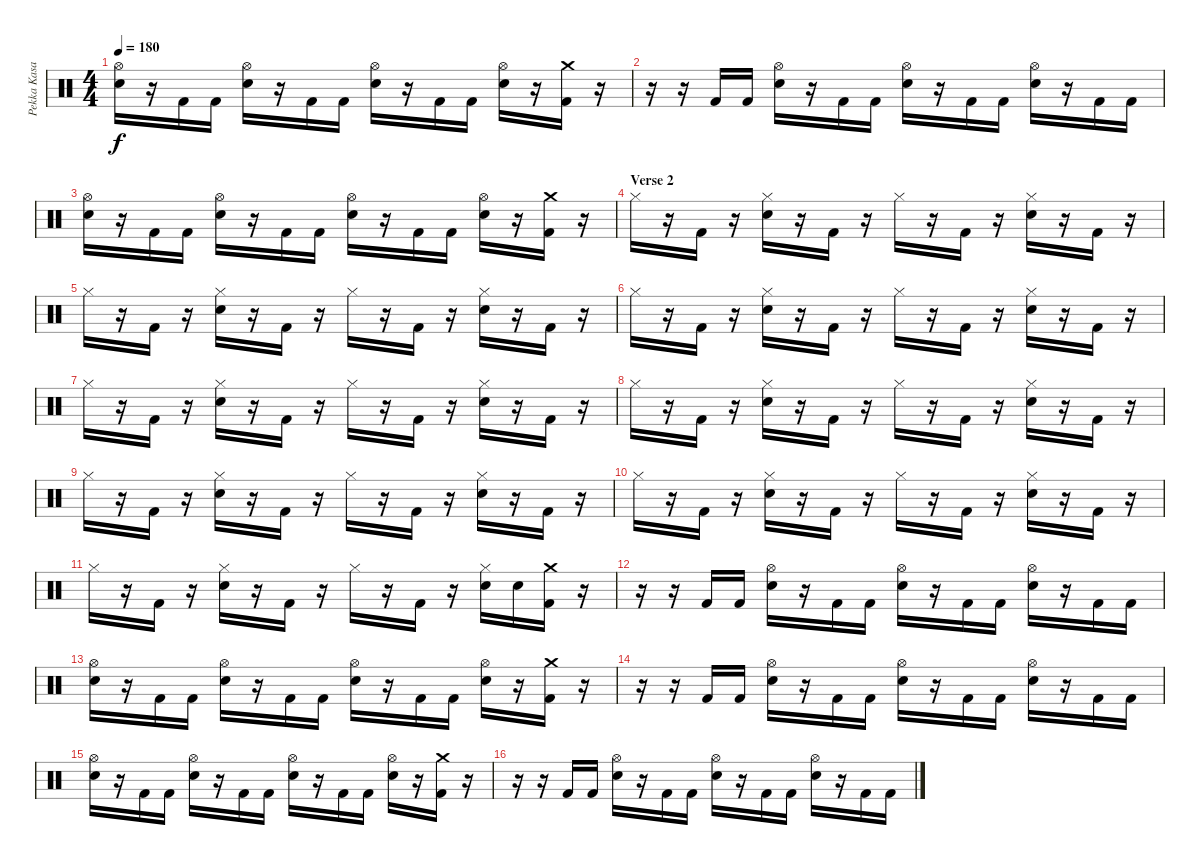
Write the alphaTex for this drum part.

\track ("Pekka Kasari" "Pekka Kasa") {instrument percussion}
\staff {score}
\articulation defaults
\ts (4 4)
\tempo 180
\clef neutral
\ks c
("Hi-Hat (open)" "Electric Snare (hit)").16{dy f} r.16 "Kick (hit) 2".16 "Kick (hit) 2".16 ("Hi-Hat (open)" "Electric Snare (hit)").16 r.16 "Kick (hit) 2".16 "Kick (hit) 2".16 ("Hi-Hat (open)" "Electric Snare (hit)").16 r.16 "Kick (hit) 2".16 "Kick (hit) 2".16 ("Hi-Hat (open)" "Electric Snare (hit)").16 r.16 ("Crash medium (hit)" "Kick (hit) 2").16 r.16 |
r.16 r.16 "Kick (hit) 2".16 "Kick (hit) 2".16 ("Hi-Hat (open)" "Electric Snare (hit)").16 r.16 "Kick (hit) 2".16 "Kick (hit) 2".16 ("Hi-Hat (open)" "Electric Snare (hit)").16 r.16 "Kick (hit) 2".16 "Kick (hit) 2".16 ("Hi-Hat (open)" "Electric Snare (hit)").16 r.16 "Kick (hit) 2".16 "Kick (hit) 2".16 |
("Hi-Hat (open)" "Electric Snare (hit)").16 r.16 "Kick (hit) 2".16 "Kick (hit) 2".16 ("Hi-Hat (open)" "Electric Snare (hit)").16 r.16 "Kick (hit) 2".16 "Kick (hit) 2".16 ("Hi-Hat (open)" "Electric Snare (hit)").16 r.16 "Kick (hit) 2".16 "Kick (hit) 2".16 ("Hi-Hat (open)" "Electric Snare (hit)").16 r.16 ("Crash medium (hit)" "Kick (hit) 2").16 r.16 |
\section ("" "Verse 2")
"Hi-Hat (closed)".16 r.16 "Kick (hit) 2".16 r.16 ("Hi-Hat (closed)" "Electric Snare (hit)").16 r.16 "Kick (hit) 2".16 r.16 "Hi-Hat (closed)".16 r.16 "Kick (hit) 2".16 r.16 ("Hi-Hat (closed)" "Electric Snare (hit)").16 r.16 "Kick (hit) 2".16 r.16 |
"Hi-Hat (closed)".16 r.16 "Kick (hit) 2".16 r.16 ("Hi-Hat (closed)" "Electric Snare (hit)").16 r.16 "Kick (hit) 2".16 r.16 "Hi-Hat (closed)".16 r.16 "Kick (hit) 2".16 r.16 ("Hi-Hat (closed)" "Electric Snare (hit)").16 r.16 "Kick (hit) 2".16 r.16 |
"Hi-Hat (closed)".16 r.16 "Kick (hit) 2".16 r.16 ("Hi-Hat (closed)" "Electric Snare (hit)").16 r.16 "Kick (hit) 2".16 r.16 "Hi-Hat (closed)".16 r.16 "Kick (hit) 2".16 r.16 ("Hi-Hat (closed)" "Electric Snare (hit)").16 r.16 "Kick (hit) 2".16 r.16 |
"Hi-Hat (closed)".16 r.16 "Kick (hit) 2".16 r.16 ("Hi-Hat (closed)" "Electric Snare (hit)").16 r.16 "Kick (hit) 2".16 r.16 "Hi-Hat (closed)".16 r.16 "Kick (hit) 2".16 r.16 ("Hi-Hat (closed)" "Electric Snare (hit)").16 r.16 "Kick (hit) 2".16 r.16 |
"Hi-Hat (closed)".16 r.16 "Kick (hit) 2".16 r.16 ("Hi-Hat (closed)" "Electric Snare (hit)").16 r.16 "Kick (hit) 2".16 r.16 "Hi-Hat (closed)".16 r.16 "Kick (hit) 2".16 r.16 ("Hi-Hat (closed)" "Electric Snare (hit)").16 r.16 "Kick (hit) 2".16 r.16 |
"Hi-Hat (closed)".16 r.16 "Kick (hit) 2".16 r.16 ("Hi-Hat (closed)" "Electric Snare (hit)").16 r.16 "Kick (hit) 2".16 r.16 "Hi-Hat (closed)".16 r.16 "Kick (hit) 2".16 r.16 ("Hi-Hat (closed)" "Electric Snare (hit)").16 r.16 "Kick (hit) 2".16 r.16 |
"Hi-Hat (closed)".16 r.16 "Kick (hit) 2".16 r.16 ("Hi-Hat (closed)" "Electric Snare (hit)").16 r.16 "Kick (hit) 2".16 r.16 "Hi-Hat (closed)".16 r.16 "Kick (hit) 2".16 r.16 ("Hi-Hat (closed)" "Electric Snare (hit)").16 r.16 "Kick (hit) 2".16 r.16 |
"Hi-Hat (closed)".16 r.16 "Kick (hit) 2".16 r.16 ("Hi-Hat (closed)" "Electric Snare (hit)").16 r.16 "Kick (hit) 2".16 r.16 "Hi-Hat (closed)".16 r.16 "Kick (hit) 2".16 r.16 ("Hi-Hat (closed)" "Electric Snare (hit)").16 "Electric Snare (hit)".16 ("Crash medium (hit)" "Kick (hit) 2").16 r.16 |
r.16 r.16 "Kick (hit) 2".16 "Kick (hit) 2".16 ("Hi-Hat (open)" "Electric Snare (hit)").16 r.16 "Kick (hit) 2".16 "Kick (hit) 2".16 ("Hi-Hat (open)" "Electric Snare (hit)").16 r.16 "Kick (hit) 2".16 "Kick (hit) 2".16 ("Hi-Hat (open)" "Electric Snare (hit)").16 r.16 "Kick (hit) 2".16 "Kick (hit) 2".16 |
("Hi-Hat (open)" "Electric Snare (hit)").16 r.16 "Kick (hit) 2".16 "Kick (hit) 2".16 ("Hi-Hat (open)" "Electric Snare (hit)").16 r.16 "Kick (hit) 2".16 "Kick (hit) 2".16 ("Hi-Hat (open)" "Electric Snare (hit)").16 r.16 "Kick (hit) 2".16 "Kick (hit) 2".16 ("Hi-Hat (open)" "Electric Snare (hit)").16 r.16 ("Crash medium (hit)" "Kick (hit) 2").16 r.16 |
r.16 r.16 "Kick (hit) 2".16 "Kick (hit) 2".16 ("Hi-Hat (open)" "Electric Snare (hit)").16 r.16 "Kick (hit) 2".16 "Kick (hit) 2".16 ("Hi-Hat (open)" "Electric Snare (hit)").16 r.16 "Kick (hit) 2".16 "Kick (hit) 2".16 ("Hi-Hat (open)" "Electric Snare (hit)").16 r.16 "Kick (hit) 2".16 "Kick (hit) 2".16 |
("Hi-Hat (open)" "Electric Snare (hit)").16 r.16 "Kick (hit) 2".16 "Kick (hit) 2".16 ("Hi-Hat (open)" "Electric Snare (hit)").16 r.16 "Kick (hit) 2".16 "Kick (hit) 2".16 ("Hi-Hat (open)" "Electric Snare (hit)").16 r.16 "Kick (hit) 2".16 "Kick (hit) 2".16 ("Hi-Hat (open)" "Electric Snare (hit)").16 r.16 ("Crash medium (hit)" "Kick (hit) 2").16 r.16 |
r.16 r.16 "Kick (hit) 2".16 "Kick (hit) 2".16 ("Hi-Hat (open)" "Electric Snare (hit)").16 r.16 "Kick (hit) 2".16 "Kick (hit) 2".16 ("Hi-Hat (open)" "Electric Snare (hit)").16 r.16 "Kick (hit) 2".16 "Kick (hit) 2".16 ("Hi-Hat (open)" "Electric Snare (hit)").16 r.16 "Kick (hit) 2".16 "Kick (hit) 2".16
